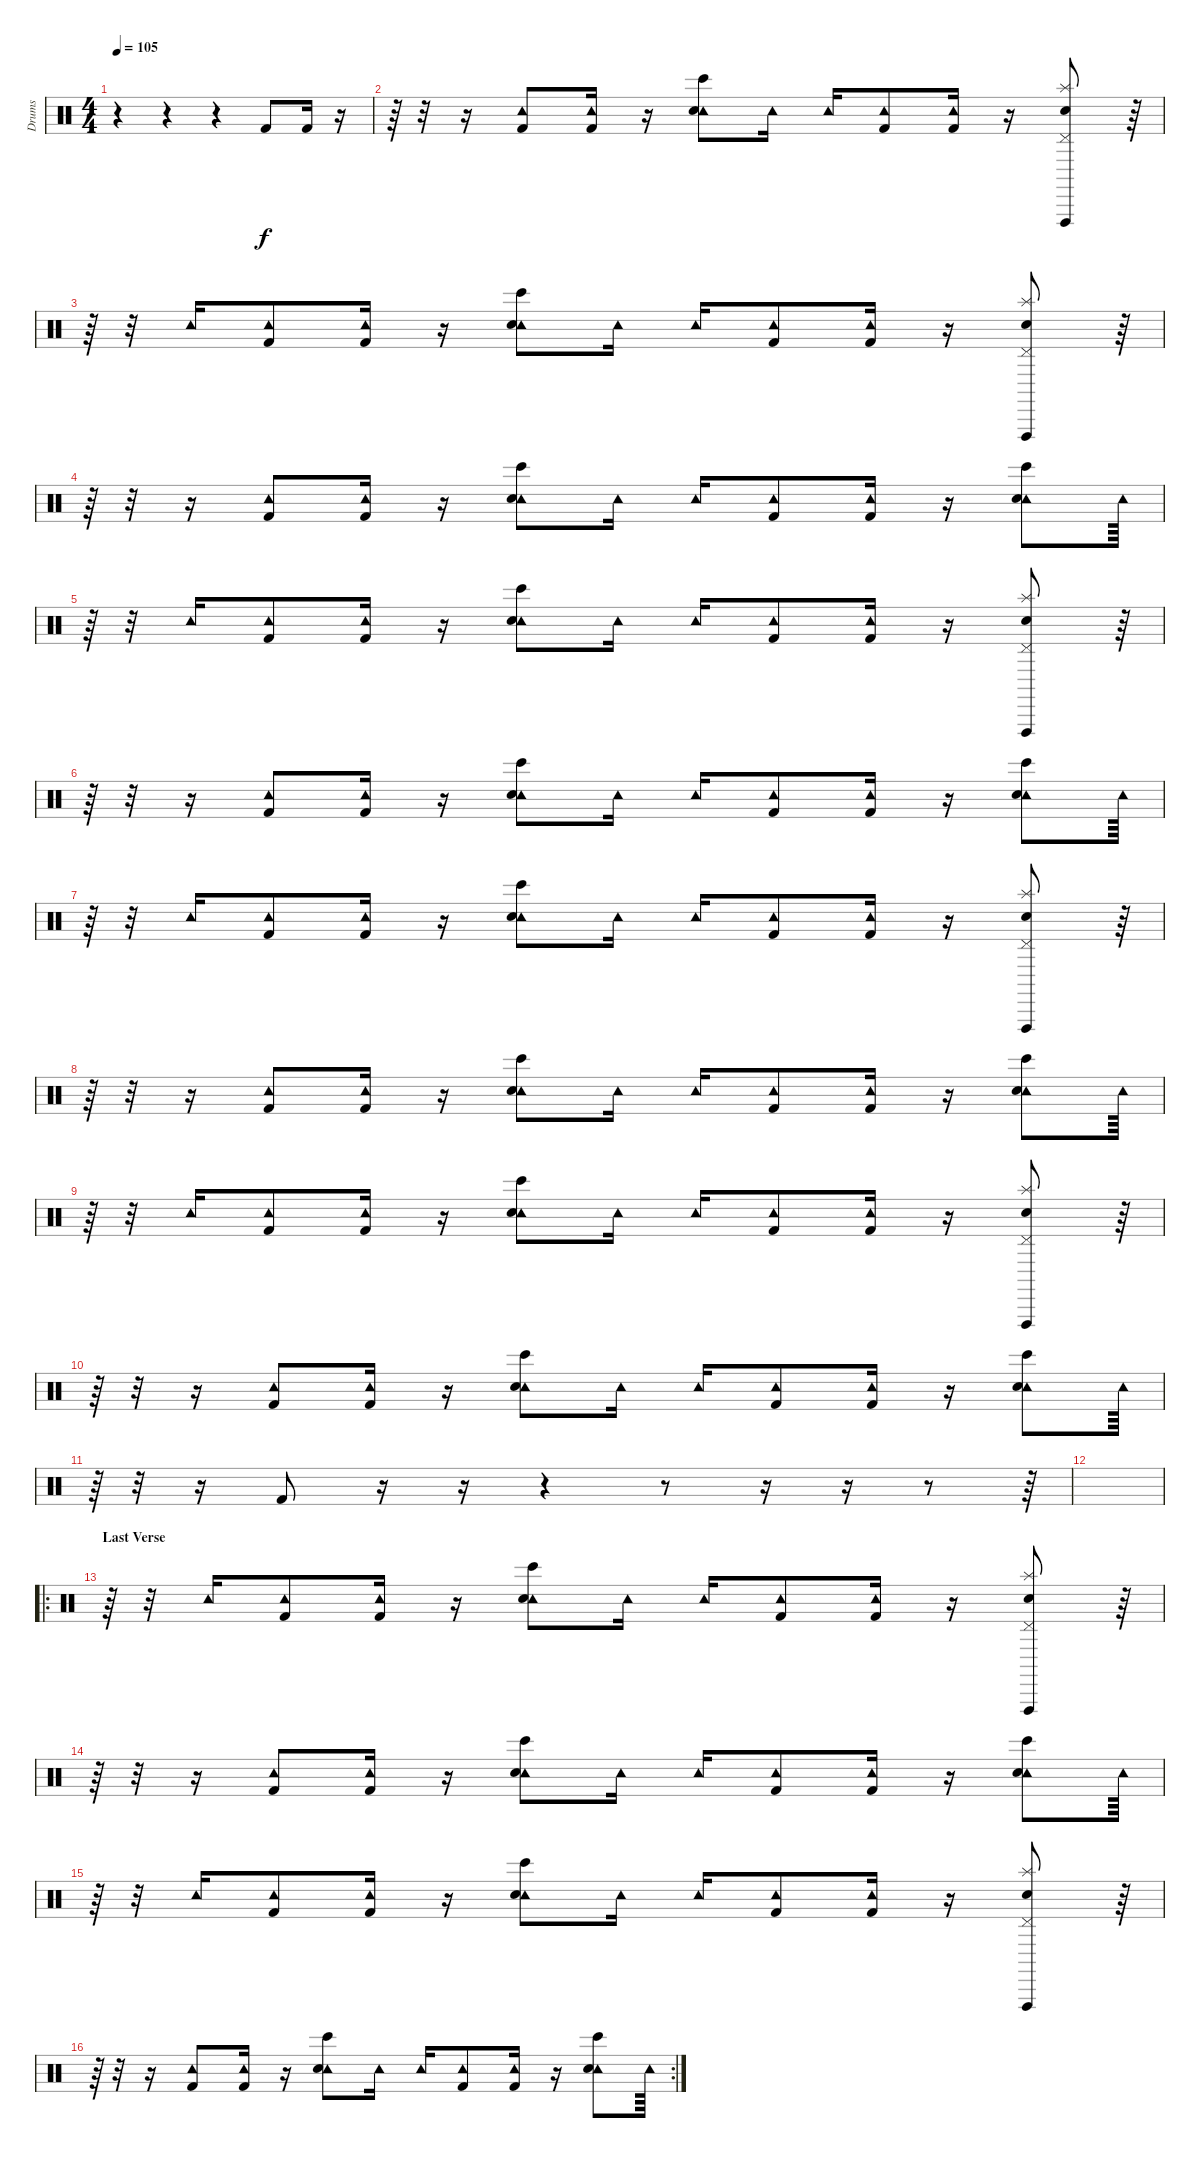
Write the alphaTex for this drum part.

\track ("Drums" "Drums") {instrument percussion}
\staff {score}
\articulation defaults
\ts (4 4)
\tempo 105
\clef neutral
\ks c
r.4{dy f} r.4 r.4 "Kick (hit) 2".8 "Kick (hit) 2".16 r.16 |
r.64 r.32 r.16 ("Tambourine (hit)" "Kick (hit) 2").8 ("Tambourine (hit)" "Kick (hit) 2").16 r.16 ("Tambourine (hit)" "Electric Snare (hit)" "Bongo High (hit)").8 "Tambourine (hit)".16 "Tambourine (hit)".16 ("Tambourine (hit)" "Kick (hit) 2").8 ("Tambourine (hit)" "Kick (hit) 2").16 r.16 ("Splash (hit)" "Electric Snare (hit)" "Pedal Hi-Hat (hit)" "Vibraslap (hit)").8 r.64 |
r.64 r.32 "Tambourine (hit)".16 ("Tambourine (hit)" "Kick (hit) 2").8 ("Tambourine (hit)" "Kick (hit) 2").16 r.16 ("Tambourine (hit)" "Electric Snare (hit)" "Bongo High (hit)").8 "Tambourine (hit)".16 "Tambourine (hit)".16 ("Tambourine (hit)" "Kick (hit) 2").8 ("Tambourine (hit)" "Kick (hit) 2").16 r.16 ("Splash (hit)" "Electric Snare (hit)" "Pedal Hi-Hat (hit)" "Vibraslap (hit)").8 r.64 |
r.64 r.32 r.16 ("Tambourine (hit)" "Kick (hit) 2").8 ("Tambourine (hit)" "Kick (hit) 2").16 r.16 ("Tambourine (hit)" "Electric Snare (hit)" "Bongo High (hit)").8 "Tambourine (hit)".16 "Tambourine (hit)".16 ("Tambourine (hit)" "Kick (hit) 2").8 ("Tambourine (hit)" "Kick (hit) 2").16 r.16 ("Tambourine (hit)" "Electric Snare (hit)" "Bongo High (hit)").8 "Tambourine (hit)".64 |
r.64 r.32 "Tambourine (hit)".16 ("Tambourine (hit)" "Kick (hit) 2").8 ("Tambourine (hit)" "Kick (hit) 2").16 r.16 ("Tambourine (hit)" "Electric Snare (hit)" "Bongo High (hit)").8 "Tambourine (hit)".16 "Tambourine (hit)".16 ("Tambourine (hit)" "Kick (hit) 2").8 ("Tambourine (hit)" "Kick (hit) 2").16 r.16 ("Splash (hit)" "Electric Snare (hit)" "Pedal Hi-Hat (hit)" "Vibraslap (hit)").8 r.64 |
r.64 r.32 r.16 ("Tambourine (hit)" "Kick (hit) 2").8 ("Tambourine (hit)" "Kick (hit) 2").16 r.16 ("Tambourine (hit)" "Electric Snare (hit)" "Bongo High (hit)").8 "Tambourine (hit)".16 "Tambourine (hit)".16 ("Tambourine (hit)" "Kick (hit) 2").8 ("Tambourine (hit)" "Kick (hit) 2").16 r.16 ("Tambourine (hit)" "Electric Snare (hit)" "Bongo High (hit)").8 "Tambourine (hit)".64 |
r.64 r.32 "Tambourine (hit)".16 ("Tambourine (hit)" "Kick (hit) 2").8 ("Tambourine (hit)" "Kick (hit) 2").16 r.16 ("Tambourine (hit)" "Electric Snare (hit)" "Bongo High (hit)").8 "Tambourine (hit)".16 "Tambourine (hit)".16 ("Tambourine (hit)" "Kick (hit) 2").8 ("Tambourine (hit)" "Kick (hit) 2").16 r.16 ("Splash (hit)" "Electric Snare (hit)" "Pedal Hi-Hat (hit)" "Vibraslap (hit)").8 r.64 |
r.64 r.32 r.16 ("Tambourine (hit)" "Kick (hit) 2").8 ("Tambourine (hit)" "Kick (hit) 2").16 r.16 ("Tambourine (hit)" "Electric Snare (hit)" "Bongo High (hit)").8 "Tambourine (hit)".16 "Tambourine (hit)".16 ("Tambourine (hit)" "Kick (hit) 2").8 ("Tambourine (hit)" "Kick (hit) 2").16 r.16 ("Tambourine (hit)" "Electric Snare (hit)" "Bongo High (hit)").8 "Tambourine (hit)".64 |
r.64 r.32 "Tambourine (hit)".16 ("Tambourine (hit)" "Kick (hit) 2").8 ("Tambourine (hit)" "Kick (hit) 2").16 r.16 ("Tambourine (hit)" "Electric Snare (hit)" "Bongo High (hit)").8 "Tambourine (hit)".16 "Tambourine (hit)".16 ("Tambourine (hit)" "Kick (hit) 2").8 ("Tambourine (hit)" "Kick (hit) 2").16 r.16 ("Splash (hit)" "Electric Snare (hit)" "Pedal Hi-Hat (hit)" "Vibraslap (hit)").8 r.64 |
r.64 r.32 r.16 ("Tambourine (hit)" "Kick (hit) 2").8 ("Tambourine (hit)" "Kick (hit) 2").16 r.16 ("Tambourine (hit)" "Electric Snare (hit)" "Bongo High (hit)").8 "Tambourine (hit)".16 "Tambourine (hit)".16 ("Tambourine (hit)" "Kick (hit) 2").8 ("Tambourine (hit)" "Kick (hit) 2").16 r.16 ("Tambourine (hit)" "Electric Snare (hit)" "Bongo High (hit)").8 "Tambourine (hit)".64 |
r.64 r.32 r.16 "Kick (hit) 2".8 r.16 r.16 r.4 r.8 r.16 r.16 r.8 r.64 |
|
\ro
\section ("" "Last Verse")
r.64 r.32 "Tambourine (hit)".16 ("Tambourine (hit)" "Kick (hit) 2").8 ("Tambourine (hit)" "Kick (hit) 2").16 r.16 ("Tambourine (hit)" "Electric Snare (hit)" "Bongo High (hit)").8 "Tambourine (hit)".16 "Tambourine (hit)".16 ("Tambourine (hit)" "Kick (hit) 2").8 ("Tambourine (hit)" "Kick (hit) 2").16 r.16 ("Splash (hit)" "Electric Snare (hit)" "Pedal Hi-Hat (hit)" "Vibraslap (hit)").8 r.64 |
r.64 r.32 r.16 ("Tambourine (hit)" "Kick (hit) 2").8 ("Tambourine (hit)" "Kick (hit) 2").16 r.16 ("Tambourine (hit)" "Electric Snare (hit)" "Bongo High (hit)").8 "Tambourine (hit)".16 "Tambourine (hit)".16 ("Tambourine (hit)" "Kick (hit) 2").8 ("Tambourine (hit)" "Kick (hit) 2").16 r.16 ("Tambourine (hit)" "Electric Snare (hit)" "Bongo High (hit)").8 "Tambourine (hit)".64 |
r.64 r.32 "Tambourine (hit)".16 ("Tambourine (hit)" "Kick (hit) 2").8 ("Tambourine (hit)" "Kick (hit) 2").16 r.16 ("Tambourine (hit)" "Electric Snare (hit)" "Bongo High (hit)").8 "Tambourine (hit)".16 "Tambourine (hit)".16 ("Tambourine (hit)" "Kick (hit) 2").8 ("Tambourine (hit)" "Kick (hit) 2").16 r.16 ("Splash (hit)" "Electric Snare (hit)" "Pedal Hi-Hat (hit)" "Vibraslap (hit)").8 r.64 |
\rc 2
r.64 r.32 r.16 ("Tambourine (hit)" "Kick (hit) 2").8 ("Tambourine (hit)" "Kick (hit) 2").16 r.16 ("Tambourine (hit)" "Electric Snare (hit)" "Bongo High (hit)").8 "Tambourine (hit)".16 "Tambourine (hit)".16 ("Tambourine (hit)" "Kick (hit) 2").8 ("Tambourine (hit)" "Kick (hit) 2").16 r.16 ("Tambourine (hit)" "Electric Snare (hit)" "Bongo High (hit)").8 "Tambourine (hit)".64
